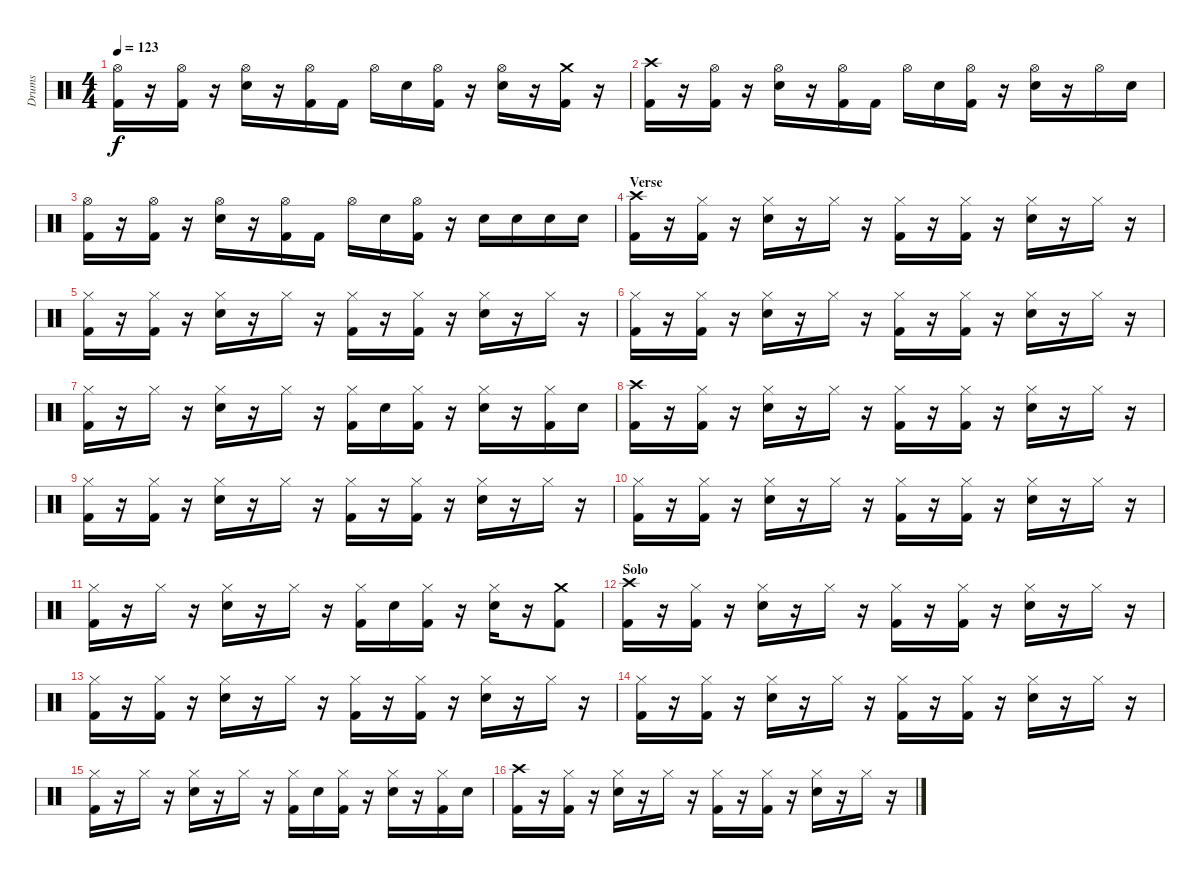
\track ("Drums" "Drums") {instrument percussion}
\staff {score}
\articulation defaults
\ts (4 4)
\tempo 123
\clef neutral
\ks c
("Hi-Hat (open)" "Kick (hit) 2").16{dy f} r.16 ("Hi-Hat (open)" "Kick (hit) 2").16 r.16 ("Hi-Hat (open)" "Electric Snare (hit)").16 r.16 ("Hi-Hat (open)" "Kick (hit) 2").16 "Kick (hit) 2".16 "Hi-Hat (open)".16 "Electric Snare (hit)".16 ("Hi-Hat (open)" "Kick (hit) 2").16 r.16 ("Hi-Hat (open)" "Electric Snare (hit)").16 r.16 ("Crash medium (hit)" "Kick (hit) 2").16 r.16 |
("Crash high (hit)" "Kick (hit) 2").16 r.16 ("Hi-Hat (open)" "Kick (hit) 2").16 r.16 ("Hi-Hat (open)" "Electric Snare (hit)").16 r.16 ("Hi-Hat (open)" "Kick (hit) 2").16 "Kick (hit) 2".16 "Hi-Hat (open)".16 "Electric Snare (hit)".16 ("Hi-Hat (open)" "Kick (hit) 2").16 r.16 ("Hi-Hat (open)" "Electric Snare (hit)").16 r.16 "Hi-Hat (open)".16 "Electric Snare (hit)".16 |
("Hi-Hat (open)" "Kick (hit) 2").16 r.16 ("Hi-Hat (open)" "Kick (hit) 2").16 r.16 ("Hi-Hat (open)" "Electric Snare (hit)").16 r.16 ("Hi-Hat (open)" "Kick (hit) 2").16 "Kick (hit) 2".16 "Hi-Hat (open)".16 "Electric Snare (hit)".16 ("Hi-Hat (open)" "Kick (hit) 2").16 r.16 "Electric Snare (hit)".16 "Electric Snare (hit)".16 "Electric Snare (hit)".16 "Electric Snare (hit)".16 |
\section ("" "Verse")
("Crash high (hit)" "Kick (hit) 2").16 r.16 ("Hi-Hat (closed)" "Kick (hit) 2").16 r.16 ("Hi-Hat (closed)" "Electric Snare (hit)").16 r.16 "Hi-Hat (closed)".16 r.16 ("Hi-Hat (closed)" "Kick (hit) 2").16 r.16 ("Hi-Hat (closed)" "Kick (hit) 2").16 r.16 ("Hi-Hat (closed)" "Electric Snare (hit)").16 r.16 "Hi-Hat (closed)".16 r.16 |
("Hi-Hat (closed)" "Kick (hit) 2").16 r.16 ("Hi-Hat (closed)" "Kick (hit) 2").16 r.16 ("Hi-Hat (closed)" "Electric Snare (hit)").16 r.16 "Hi-Hat (closed)".16 r.16 ("Hi-Hat (closed)" "Kick (hit) 2").16 r.16 ("Hi-Hat (closed)" "Kick (hit) 2").16 r.16 ("Hi-Hat (closed)" "Electric Snare (hit)").16 r.16 "Hi-Hat (closed)".16 r.16 |
("Hi-Hat (closed)" "Kick (hit) 2").16 r.16 ("Hi-Hat (closed)" "Kick (hit) 2").16 r.16 ("Hi-Hat (closed)" "Electric Snare (hit)").16 r.16 "Hi-Hat (closed)".16 r.16 ("Hi-Hat (closed)" "Kick (hit) 2").16 r.16 ("Hi-Hat (closed)" "Kick (hit) 2").16 r.16 ("Hi-Hat (closed)" "Electric Snare (hit)").16 r.16 "Hi-Hat (closed)".16 r.16 |
("Hi-Hat (closed)" "Kick (hit) 2").16 r.16 "Hi-Hat (closed)".16 r.16 ("Hi-Hat (closed)" "Electric Snare (hit)").16 r.16 "Hi-Hat (closed)".16 r.16 ("Hi-Hat (closed)" "Kick (hit) 2").16 "Electric Snare (hit)".16 ("Hi-Hat (closed)" "Kick (hit) 2").16 r.16 ("Hi-Hat (closed)" "Electric Snare (hit)").16 r.16 ("Hi-Hat (closed)" "Kick (hit) 2").16 "Electric Snare (hit)".16 |
("Crash high (hit)" "Kick (hit) 2").16 r.16 ("Hi-Hat (closed)" "Kick (hit) 2").16 r.16 ("Hi-Hat (closed)" "Electric Snare (hit)").16 r.16 "Hi-Hat (closed)".16 r.16 ("Hi-Hat (closed)" "Kick (hit) 2").16 r.16 ("Hi-Hat (closed)" "Kick (hit) 2").16 r.16 ("Hi-Hat (closed)" "Electric Snare (hit)").16 r.16 "Hi-Hat (closed)".16 r.16 |
("Hi-Hat (closed)" "Kick (hit) 2").16 r.16 ("Hi-Hat (closed)" "Kick (hit) 2").16 r.16 ("Hi-Hat (closed)" "Electric Snare (hit)").16 r.16 "Hi-Hat (closed)".16 r.16 ("Hi-Hat (closed)" "Kick (hit) 2").16 r.16 ("Hi-Hat (closed)" "Kick (hit) 2").16 r.16 ("Hi-Hat (closed)" "Electric Snare (hit)").16 r.16 "Hi-Hat (closed)".16 r.16 |
("Hi-Hat (closed)" "Kick (hit) 2").16 r.16 ("Hi-Hat (closed)" "Kick (hit) 2").16 r.16 ("Hi-Hat (closed)" "Electric Snare (hit)").16 r.16 "Hi-Hat (closed)".16 r.16 ("Hi-Hat (closed)" "Kick (hit) 2").16 r.16 ("Hi-Hat (closed)" "Kick (hit) 2").16 r.16 ("Hi-Hat (closed)" "Electric Snare (hit)").16 r.16 "Hi-Hat (closed)".16 r.16 |
("Hi-Hat (closed)" "Kick (hit) 2").16 r.16 "Hi-Hat (closed)".16 r.16 ("Hi-Hat (closed)" "Electric Snare (hit)").16 r.16 "Hi-Hat (closed)".16 r.16 ("Hi-Hat (closed)" "Kick (hit) 2").16 "Electric Snare (hit)".16 ("Hi-Hat (closed)" "Kick (hit) 2").16 r.16 ("Hi-Hat (closed)" "Electric Snare (hit)").16 r.16 ("Crash medium (hit)" "Kick (hit) 2").8 |
\section ("" "Solo")
("Crash high (hit)" "Kick (hit) 2").16 r.16 ("Hi-Hat (closed)" "Kick (hit) 2").16 r.16 ("Hi-Hat (closed)" "Electric Snare (hit)").16 r.16 "Hi-Hat (closed)".16 r.16 ("Hi-Hat (closed)" "Kick (hit) 2").16 r.16 ("Hi-Hat (closed)" "Kick (hit) 2").16 r.16 ("Hi-Hat (closed)" "Electric Snare (hit)").16 r.16 "Hi-Hat (closed)".16 r.16 |
("Hi-Hat (closed)" "Kick (hit) 2").16 r.16 ("Hi-Hat (closed)" "Kick (hit) 2").16 r.16 ("Hi-Hat (closed)" "Electric Snare (hit)").16 r.16 "Hi-Hat (closed)".16 r.16 ("Hi-Hat (closed)" "Kick (hit) 2").16 r.16 ("Hi-Hat (closed)" "Kick (hit) 2").16 r.16 ("Hi-Hat (closed)" "Electric Snare (hit)").16 r.16 "Hi-Hat (closed)".16 r.16 |
("Hi-Hat (closed)" "Kick (hit) 2").16 r.16 ("Hi-Hat (closed)" "Kick (hit) 2").16 r.16 ("Hi-Hat (closed)" "Electric Snare (hit)").16 r.16 "Hi-Hat (closed)".16 r.16 ("Hi-Hat (closed)" "Kick (hit) 2").16 r.16 ("Hi-Hat (closed)" "Kick (hit) 2").16 r.16 ("Hi-Hat (closed)" "Electric Snare (hit)").16 r.16 "Hi-Hat (closed)".16 r.16 |
("Hi-Hat (closed)" "Kick (hit) 2").16 r.16 "Hi-Hat (closed)".16 r.16 ("Hi-Hat (closed)" "Electric Snare (hit)").16 r.16 "Hi-Hat (closed)".16 r.16 ("Hi-Hat (closed)" "Kick (hit) 2").16 "Electric Snare (hit)".16 ("Hi-Hat (closed)" "Kick (hit) 2").16 r.16 ("Hi-Hat (closed)" "Electric Snare (hit)").16 r.16 ("Hi-Hat (closed)" "Kick (hit) 2").16 "Electric Snare (hit)".16 |
("Crash high (hit)" "Kick (hit) 2").16 r.16 ("Hi-Hat (closed)" "Kick (hit) 2").16 r.16 ("Hi-Hat (closed)" "Electric Snare (hit)").16 r.16 "Hi-Hat (closed)".16 r.16 ("Hi-Hat (closed)" "Kick (hit) 2").16 r.16 ("Hi-Hat (closed)" "Kick (hit) 2").16 r.16 ("Hi-Hat (closed)" "Electric Snare (hit)").16 r.16 "Hi-Hat (closed)".16 r.16
